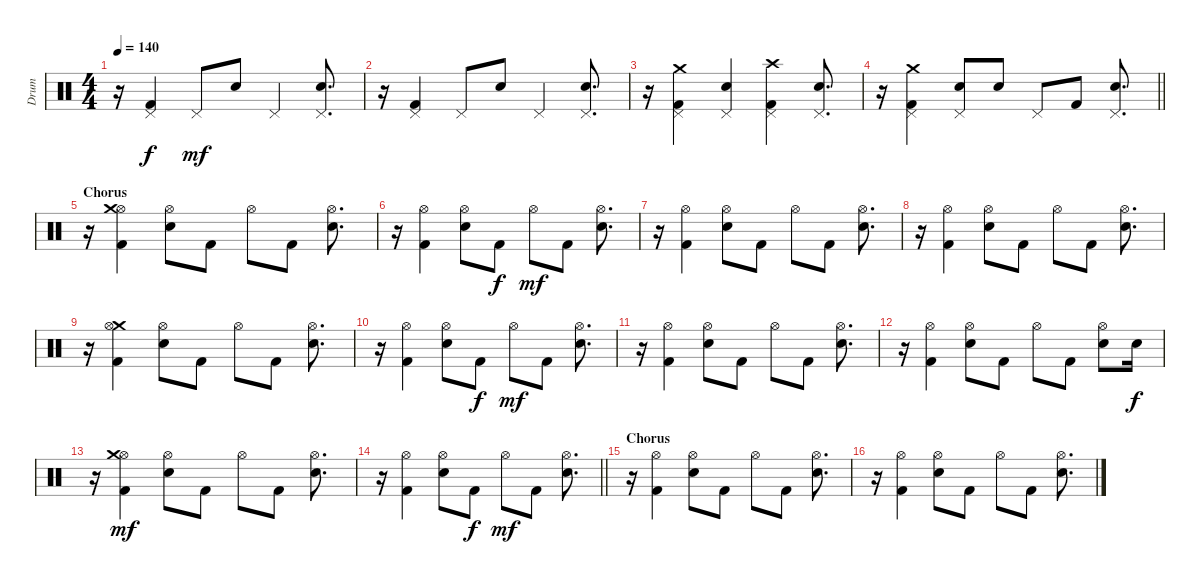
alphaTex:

\track ("Drum" "Drum") {instrument percussion}
\staff {score}
\articulation defaults
\ts (4 4)
\tempo 140
\clef neutral
\ks c
r.16{dy mf} ("Pedal Hi-Hat (hit)" "Kick (hit) 2").4{dy f} "Pedal Hi-Hat (hit)".8{dy mf} "Electric Snare (hit)".8 "Pedal Hi-Hat (hit)".4 ("Electric Snare (hit)" "Pedal Hi-Hat (hit)").8{d} |
r.16 ("Kick (hit) 2" "Pedal Hi-Hat (hit)").4 "Pedal Hi-Hat (hit)".8 "Electric Snare (hit)".8 "Pedal Hi-Hat (hit)".4 ("Electric Snare (hit)" "Pedal Hi-Hat (hit)").8{d} |
r.16 ("Kick (hit) 2" "Pedal Hi-Hat (hit)" "Crash medium (hit)").4 ("Pedal Hi-Hat (hit)" "Electric Snare (hit)").4 ("Kick (hit) 2" "Crash high (hit)" "Pedal Hi-Hat (hit)").4 ("Pedal Hi-Hat (hit)" "Electric Snare (hit)").8{d} |
\barLineRight lightlight
r.16 ("Pedal Hi-Hat (hit)" "Crash medium (hit)" "Kick (hit) 2").4 ("Pedal Hi-Hat (hit)" "Electric Snare (hit)").8 "Electric Snare (hit)".8 "Pedal Hi-Hat (hit)".8 "Kick (hit) 2".8 ("Electric Snare (hit)" "Pedal Hi-Hat (hit)").8{d} |
\section ("" "Chorus")
r.16 ("Hi-Hat (open)" "Crash medium (hit)" "Kick (hit) 2").4 ("Hi-Hat (open)" "Electric Snare (hit)").8 "Kick (hit) 2".8 "Hi-Hat (open)".8 "Kick (hit) 2".8 ("Electric Snare (hit)" "Hi-Hat (open)").8{d} |
r.16 ("Hi-Hat (open)" "Kick (hit) 2").4 ("Electric Snare (hit)" "Hi-Hat (open)").8 "Kick (hit) 2".8{dy f} "Hi-Hat (open)".8{dy mf} "Kick (hit) 2".8 ("Hi-Hat (open)" "Electric Snare (hit)").8{d} |
r.16 ("Hi-Hat (open)" "Kick (hit) 2").4 ("Electric Snare (hit)" "Hi-Hat (open)").8 "Kick (hit) 2".8 "Hi-Hat (open)".8 "Kick (hit) 2".8 ("Electric Snare (hit)" "Hi-Hat (open)").8{d} |
r.16 ("Kick (hit) 2" "Hi-Hat (open)").4 ("Electric Snare (hit)" "Hi-Hat (open)").8 "Kick (hit) 2".8 "Hi-Hat (open)".8 "Kick (hit) 2".8 ("Electric Snare (hit)" "Hi-Hat (open)").8{d} |
r.16 ("Kick (hit) 2" "Crash medium (hit)" "Hi-Hat (open)").4 ("Electric Snare (hit)" "Hi-Hat (open)").8 "Kick (hit) 2".8 "Hi-Hat (open)".8 "Kick (hit) 2".8 ("Hi-Hat (open)" "Electric Snare (hit)").8{d} |
r.16 ("Kick (hit) 2" "Hi-Hat (open)").4 ("Electric Snare (hit)" "Hi-Hat (open)").8 "Kick (hit) 2".8{dy f} "Hi-Hat (open)".8{dy mf} "Kick (hit) 2".8 ("Hi-Hat (open)" "Electric Snare (hit)").8{d} |
r.16 ("Hi-Hat (open)" "Kick (hit) 2").4 ("Electric Snare (hit)" "Hi-Hat (open)").8 "Kick (hit) 2".8 "Hi-Hat (open)".8 "Kick (hit) 2".8 ("Hi-Hat (open)" "Electric Snare (hit)").8{d} |
r.16 ("Kick (hit) 2" "Hi-Hat (open)").4 ("Electric Snare (hit)" "Hi-Hat (open)").8 "Kick (hit) 2".8 "Hi-Hat (open)".8 "Kick (hit) 2".8 ("Electric Snare (hit)" "Hi-Hat (open)").8 "Electric Snare (hit)".16{dy f} |
r.16 ("Hi-Hat (open)" "Crash medium (hit)" "Kick (hit) 2").4{dy mf} ("Hi-Hat (open)" "Electric Snare (hit)").8 "Kick (hit) 2".8 "Hi-Hat (open)".8 "Kick (hit) 2".8 ("Hi-Hat (open)" "Electric Snare (hit)").8{d} |
\barLineRight lightlight
r.16 ("Kick (hit) 2" "Hi-Hat (open)").4 ("Hi-Hat (open)" "Electric Snare (hit)").8 "Kick (hit) 2".8{dy f} "Hi-Hat (open)".8{dy mf} "Kick (hit) 2".8 ("Hi-Hat (open)" "Electric Snare (hit)").8{d} |
\section ("" "Chorus")
r.16 ("Hi-Hat (open)" "Kick (hit) 2").4 ("Hi-Hat (open)" "Electric Snare (hit)").8 "Kick (hit) 2".8 "Hi-Hat (open)".8 "Kick (hit) 2".8 ("Electric Snare (hit)" "Hi-Hat (open)").8{d} |
r.16 ("Kick (hit) 2" "Hi-Hat (open)").4 ("Hi-Hat (open)" "Electric Snare (hit)").8 "Kick (hit) 2".8 "Hi-Hat (open)".8 "Kick (hit) 2".8 ("Hi-Hat (open)" "Electric Snare (hit)").8{d}
